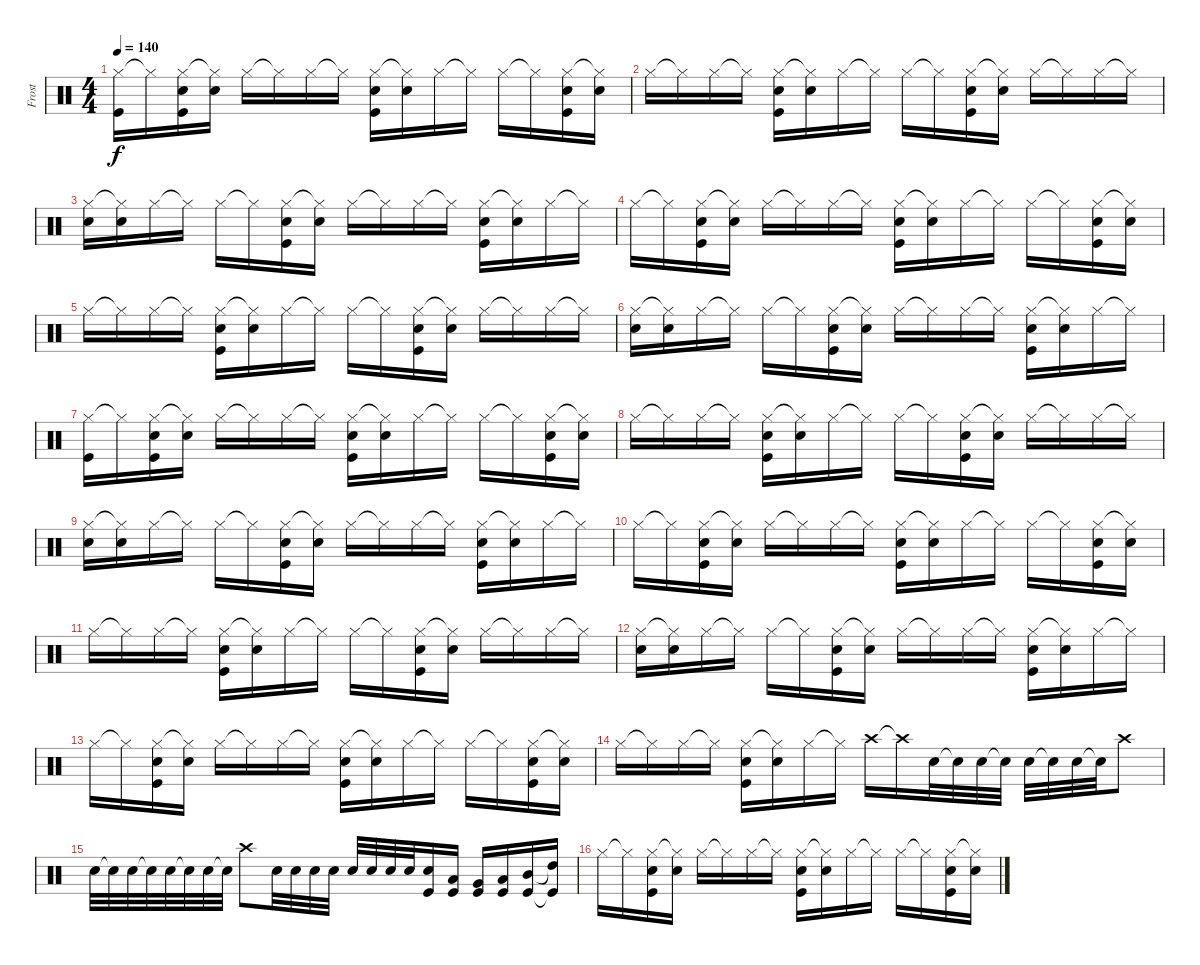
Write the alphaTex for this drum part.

\track ("Frost" "Frost") {instrument percussion}
\staff {score}
\articulation defaults
\ts (4 4)
\tempo 140
\clef neutral
\ks c
("Hi-Hat (closed)" "Kick (hit)").16{dy f} "Hi-Hat (closed)"{t}.16 ("Hi-Hat (closed)" "Electric Snare (hit)" "Kick (hit)").16 ("Hi-Hat (closed)"{t} "Electric Snare (hit)").16 "Hi-Hat (closed)".16 "Hi-Hat (closed)"{t}.16 "Hi-Hat (closed)".16 "Hi-Hat (closed)"{t}.16 ("Hi-Hat (closed)" "Electric Snare (hit)" "Kick (hit)").16 ("Hi-Hat (closed)"{t} "Electric Snare (hit)").16 "Hi-Hat (closed)".16 "Hi-Hat (closed)"{t}.16 "Hi-Hat (closed)".16 "Hi-Hat (closed)"{t}.16 ("Hi-Hat (closed)" "Electric Snare (hit)" "Kick (hit)").16 ("Hi-Hat (closed)"{t} "Electric Snare (hit)").16 |
"Hi-Hat (closed)".16 "Hi-Hat (closed)"{t}.16 "Hi-Hat (closed)".16 "Hi-Hat (closed)"{t}.16 ("Hi-Hat (closed)" "Electric Snare (hit)" "Kick (hit)").16 ("Hi-Hat (closed)"{t} "Electric Snare (hit)").16 "Hi-Hat (closed)".16 "Hi-Hat (closed)"{t}.16 "Hi-Hat (closed)".16 "Hi-Hat (closed)"{t}.16 ("Hi-Hat (closed)" "Electric Snare (hit)" "Kick (hit)").16 ("Hi-Hat (closed)"{t} "Electric Snare (hit)").16 "Hi-Hat (closed)".16 "Hi-Hat (closed)"{t}.16 "Hi-Hat (closed)".16 "Hi-Hat (closed)"{t}.16 |
("Hi-Hat (closed)" "Electric Snare (hit)").16 ("Hi-Hat (closed)"{t} "Electric Snare (hit)").16 "Hi-Hat (closed)".16 "Hi-Hat (closed)"{t}.16 "Hi-Hat (closed)".16 "Hi-Hat (closed)"{t}.16 ("Hi-Hat (closed)" "Electric Snare (hit)" "Kick (hit)").16 ("Hi-Hat (closed)"{t} "Electric Snare (hit)").16 "Hi-Hat (closed)".16 "Hi-Hat (closed)"{t}.16 "Hi-Hat (closed)".16 "Hi-Hat (closed)"{t}.16 ("Hi-Hat (closed)" "Electric Snare (hit)" "Kick (hit)").16 ("Hi-Hat (closed)"{t} "Electric Snare (hit)").16 "Hi-Hat (closed)".16 "Hi-Hat (closed)"{t}.16 |
"Hi-Hat (closed)".16 "Hi-Hat (closed)"{t}.16 ("Hi-Hat (closed)" "Electric Snare (hit)" "Kick (hit)").16 ("Hi-Hat (closed)"{t} "Electric Snare (hit)").16 "Hi-Hat (closed)".16 "Hi-Hat (closed)"{t}.16 "Hi-Hat (closed)".16 "Hi-Hat (closed)"{t}.16 ("Hi-Hat (closed)" "Electric Snare (hit)" "Kick (hit)").16 ("Hi-Hat (closed)"{t} "Electric Snare (hit)").16 "Hi-Hat (closed)".16 "Hi-Hat (closed)"{t}.16 "Hi-Hat (closed)".16 "Hi-Hat (closed)"{t}.16 ("Hi-Hat (closed)" "Electric Snare (hit)" "Kick (hit)").16 ("Hi-Hat (closed)"{t} "Electric Snare (hit)").16 |
"Hi-Hat (closed)".16 "Hi-Hat (closed)"{t}.16 "Hi-Hat (closed)".16 "Hi-Hat (closed)"{t}.16 ("Hi-Hat (closed)" "Electric Snare (hit)" "Kick (hit)").16 ("Hi-Hat (closed)"{t} "Electric Snare (hit)").16 "Hi-Hat (closed)".16 "Hi-Hat (closed)"{t}.16 "Hi-Hat (closed)".16 "Hi-Hat (closed)"{t}.16 ("Hi-Hat (closed)" "Electric Snare (hit)" "Kick (hit)").16 ("Hi-Hat (closed)"{t} "Electric Snare (hit)").16 "Hi-Hat (closed)".16 "Hi-Hat (closed)"{t}.16 "Hi-Hat (closed)".16 "Hi-Hat (closed)"{t}.16 |
("Hi-Hat (closed)" "Electric Snare (hit)").16 ("Hi-Hat (closed)"{t} "Electric Snare (hit)").16 "Hi-Hat (closed)".16 "Hi-Hat (closed)"{t}.16 "Hi-Hat (closed)".16 "Hi-Hat (closed)"{t}.16 ("Hi-Hat (closed)" "Electric Snare (hit)" "Kick (hit)").16 ("Hi-Hat (closed)"{t} "Electric Snare (hit)").16 "Hi-Hat (closed)".16 "Hi-Hat (closed)"{t}.16 "Hi-Hat (closed)".16 "Hi-Hat (closed)"{t}.16 ("Hi-Hat (closed)" "Electric Snare (hit)" "Kick (hit)").16 ("Hi-Hat (closed)"{t} "Electric Snare (hit)").16 "Hi-Hat (closed)".16 "Hi-Hat (closed)"{t}.16 |
("Hi-Hat (closed)" "Kick (hit)").16 "Hi-Hat (closed)"{t}.16 ("Hi-Hat (closed)" "Electric Snare (hit)" "Kick (hit)").16 ("Hi-Hat (closed)"{t} "Electric Snare (hit)").16 "Hi-Hat (closed)".16 "Hi-Hat (closed)"{t}.16 "Hi-Hat (closed)".16 "Hi-Hat (closed)"{t}.16 ("Hi-Hat (closed)" "Electric Snare (hit)" "Kick (hit)").16 ("Hi-Hat (closed)"{t} "Electric Snare (hit)").16 "Hi-Hat (closed)".16 "Hi-Hat (closed)"{t}.16 "Hi-Hat (closed)".16 "Hi-Hat (closed)"{t}.16 ("Hi-Hat (closed)" "Electric Snare (hit)" "Kick (hit)").16 ("Hi-Hat (closed)"{t} "Electric Snare (hit)").16 |
"Hi-Hat (closed)".16 "Hi-Hat (closed)"{t}.16 "Hi-Hat (closed)".16 "Hi-Hat (closed)"{t}.16 ("Hi-Hat (closed)" "Electric Snare (hit)" "Kick (hit)").16 ("Hi-Hat (closed)"{t} "Electric Snare (hit)").16 "Hi-Hat (closed)".16 "Hi-Hat (closed)"{t}.16 "Hi-Hat (closed)".16 "Hi-Hat (closed)"{t}.16 ("Hi-Hat (closed)" "Electric Snare (hit)" "Kick (hit)").16 ("Hi-Hat (closed)"{t} "Electric Snare (hit)").16 "Hi-Hat (closed)".16 "Hi-Hat (closed)"{t}.16 "Hi-Hat (closed)".16 "Hi-Hat (closed)"{t}.16 |
("Hi-Hat (closed)" "Electric Snare (hit)").16 ("Hi-Hat (closed)"{t} "Electric Snare (hit)").16 "Hi-Hat (closed)".16 "Hi-Hat (closed)"{t}.16 "Hi-Hat (closed)".16 "Hi-Hat (closed)"{t}.16 ("Hi-Hat (closed)" "Electric Snare (hit)" "Kick (hit)").16 ("Hi-Hat (closed)"{t} "Electric Snare (hit)").16 "Hi-Hat (closed)".16 "Hi-Hat (closed)"{t}.16 "Hi-Hat (closed)".16 "Hi-Hat (closed)"{t}.16 ("Hi-Hat (closed)" "Electric Snare (hit)" "Kick (hit)").16 ("Hi-Hat (closed)"{t} "Electric Snare (hit)").16 "Hi-Hat (closed)".16 "Hi-Hat (closed)"{t}.16 |
"Hi-Hat (closed)".16 "Hi-Hat (closed)"{t}.16 ("Hi-Hat (closed)" "Electric Snare (hit)" "Kick (hit)").16 ("Hi-Hat (closed)"{t} "Electric Snare (hit)").16 "Hi-Hat (closed)".16 "Hi-Hat (closed)"{t}.16 "Hi-Hat (closed)".16 "Hi-Hat (closed)"{t}.16 ("Hi-Hat (closed)" "Electric Snare (hit)" "Kick (hit)").16 ("Hi-Hat (closed)"{t} "Electric Snare (hit)").16 "Hi-Hat (closed)".16 "Hi-Hat (closed)"{t}.16 "Hi-Hat (closed)".16 "Hi-Hat (closed)"{t}.16 ("Hi-Hat (closed)" "Electric Snare (hit)" "Kick (hit)").16 ("Hi-Hat (closed)"{t} "Electric Snare (hit)").16 |
"Hi-Hat (closed)".16 "Hi-Hat (closed)"{t}.16 "Hi-Hat (closed)".16 "Hi-Hat (closed)"{t}.16 ("Hi-Hat (closed)" "Electric Snare (hit)" "Kick (hit)").16 ("Hi-Hat (closed)"{t} "Electric Snare (hit)").16 "Hi-Hat (closed)".16 "Hi-Hat (closed)"{t}.16 "Hi-Hat (closed)".16 "Hi-Hat (closed)"{t}.16 ("Hi-Hat (closed)" "Electric Snare (hit)" "Kick (hit)").16 ("Hi-Hat (closed)"{t} "Electric Snare (hit)").16 "Hi-Hat (closed)".16 "Hi-Hat (closed)"{t}.16 "Hi-Hat (closed)".16 "Hi-Hat (closed)"{t}.16 |
("Hi-Hat (closed)" "Electric Snare (hit)").16 ("Hi-Hat (closed)"{t} "Electric Snare (hit)").16 "Hi-Hat (closed)".16 "Hi-Hat (closed)"{t}.16 "Hi-Hat (closed)".16 "Hi-Hat (closed)"{t}.16 ("Hi-Hat (closed)" "Electric Snare (hit)" "Kick (hit)").16 ("Hi-Hat (closed)"{t} "Electric Snare (hit)").16 "Hi-Hat (closed)".16 "Hi-Hat (closed)"{t}.16 "Hi-Hat (closed)".16 "Hi-Hat (closed)"{t}.16 ("Hi-Hat (closed)" "Electric Snare (hit)" "Kick (hit)").16 ("Hi-Hat (closed)"{t} "Electric Snare (hit)").16 "Hi-Hat (closed)".16 "Hi-Hat (closed)"{t}.16 |
"Hi-Hat (closed)".16 "Hi-Hat (closed)"{t}.16 ("Hi-Hat (closed)" "Electric Snare (hit)" "Kick (hit)").16 ("Hi-Hat (closed)"{t} "Electric Snare (hit)").16 "Hi-Hat (closed)".16 "Hi-Hat (closed)"{t}.16 "Hi-Hat (closed)".16 "Hi-Hat (closed)"{t}.16 ("Hi-Hat (closed)" "Electric Snare (hit)" "Kick (hit)").16 ("Hi-Hat (closed)"{t} "Electric Snare (hit)").16 "Hi-Hat (closed)".16 "Hi-Hat (closed)"{t}.16 "Hi-Hat (closed)".16 "Hi-Hat (closed)"{t}.16 ("Hi-Hat (closed)" "Electric Snare (hit)" "Kick (hit)").16 ("Hi-Hat (closed)"{t} "Electric Snare (hit)").16 |
"Hi-Hat (closed)".16 "Hi-Hat (closed)"{t}.16 "Hi-Hat (closed)".16 "Hi-Hat (closed)"{t}.16 ("Hi-Hat (closed)" "Electric Snare (hit)" "Kick (hit)").16 ("Hi-Hat (closed)"{t} "Electric Snare (hit)").16 "Hi-Hat (closed)".16 "Hi-Hat (closed)"{t}.16 "Crash high (hit)".16 "Crash high (hit)"{t}.16 "Electric Snare (hit)".32 "Electric Snare (hit)"{t}.32 "Electric Snare (hit)".32 "Electric Snare (hit)"{t}.32 "Electric Snare (hit)".32 "Electric Snare (hit)"{t}.32 "Electric Snare (hit)".32 "Electric Snare (hit)"{t}.32 "Crash high (hit)".8 |
"Electric Snare (hit)".32 "Electric Snare (hit)"{t}.32 "Electric Snare (hit)".32 "Electric Snare (hit)"{t}.32 "Electric Snare (hit)".32 "Electric Snare (hit)"{t}.32 "Electric Snare (hit)".32 "Electric Snare (hit)"{t}.32 "Crash high (hit)".8 "Electric Snare (hit)".32 "Electric Snare (hit)".32 "Electric Snare (hit)".32 "Electric Snare (hit)".32 "Electric Snare (hit)".32 "Electric Snare (hit)".32 "Electric Snare (hit)".32 "Electric Snare (hit)".32 ("Electric Snare (hit)" "Kick (hit)").16 ("Low Floor Tom (hit)" "Kick (hit)").16 ("Very Low Tom (hit)" "Kick (hit)").16 ("Low Tom (hit)" "Kick (hit)").16 ("Mid Tom (hit)" "Kick (hit)").16 ("High Tom (hit)"{t} "Kick (hit)"{t}).16 |
"Hi-Hat (closed)".16 "Hi-Hat (closed)"{t}.16 ("Hi-Hat (closed)" "Electric Snare (hit)" "Kick (hit)").16 ("Hi-Hat (closed)"{t} "Electric Snare (hit)").16 "Hi-Hat (closed)".16 "Hi-Hat (closed)"{t}.16 "Hi-Hat (closed)".16 "Hi-Hat (closed)"{t}.16 ("Hi-Hat (closed)" "Electric Snare (hit)" "Kick (hit)").16 ("Hi-Hat (closed)"{t} "Electric Snare (hit)").16 "Hi-Hat (closed)".16 "Hi-Hat (closed)"{t}.16 "Hi-Hat (closed)".16 "Hi-Hat (closed)"{t}.16 ("Hi-Hat (closed)" "Electric Snare (hit)" "Kick (hit)").16 ("Hi-Hat (closed)"{t} "Electric Snare (hit)").16
